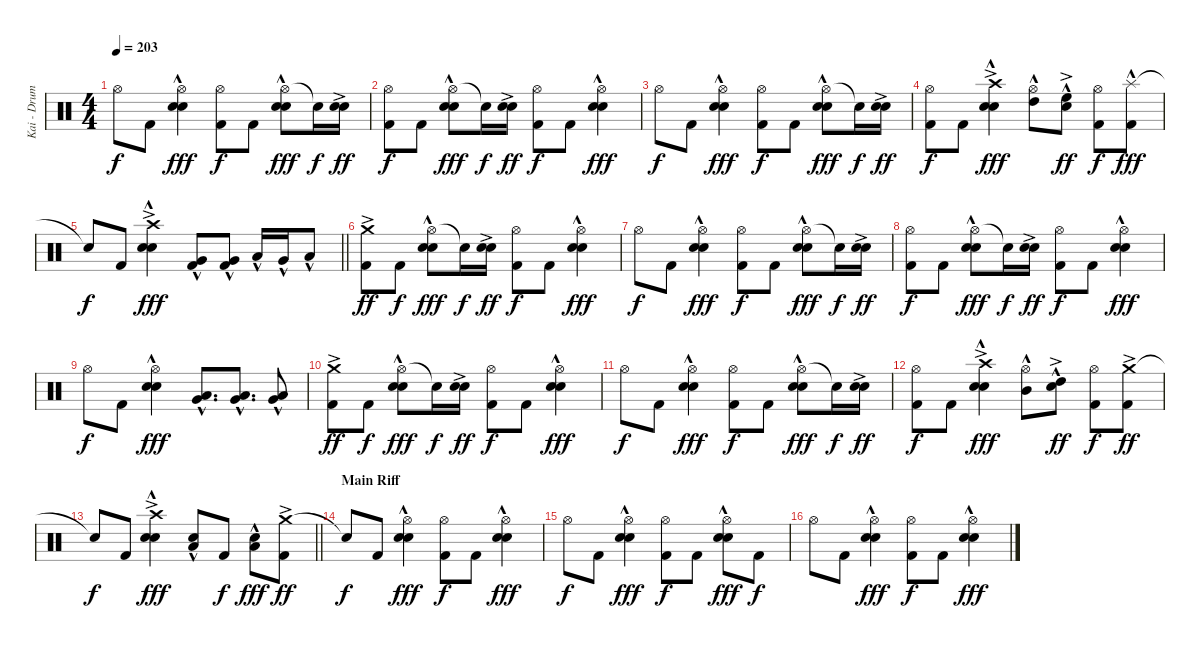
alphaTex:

\track ("Kai - Drums" "Kai - Drum") {instrument percussion}
\staff {score}
\articulation defaults
\ts (4 4)
\tempo 203
\clef neutral
\ks c "Hi-Hat (open)".8{dy f} "Kick (hit) 2".8
("Hi-Hat (open)" "Electric Snare (hit)"{hac} "Snare (hit) 2"{hac}).4{dy fff} ("Hi-Hat (open)" "Kick (hit) 2").8{dy f} "Kick (hit) 2".8 ("Hi-Hat (open)" "Electric Snare (hit)"{hac} "Snare (hit) 2"{hac}).8{dy fff} "Snare (hit)"{t}.16{dy f} ("Electric Snare (hit)"{ac} "Snare (hit) 2"{ac}).16{dy ff} |
("Hi-Hat (open)" "Kick (hit) 2").8{dy f} "Kick (hit) 2".8 ("Hi-Hat (open)" "Electric Snare (hit)"{hac} "Snare (hit) 2"{hac}).8{dy fff} "Snare (hit)"{t}.16{dy f} ("Electric Snare (hit)"{ac} "Snare (hit) 2"{ac}).16{dy ff} ("Hi-Hat (open)" "Kick (hit) 2").8{dy f} "Kick (hit) 2".8 ("Hi-Hat (open)" "Electric Snare (hit)"{hac} "Snare (hit) 2"{hac}).4{dy fff} |
"Hi-Hat (open)".8{dy f} "Kick (hit) 2".8 ("Hi-Hat (open)" "Electric Snare (hit)"{hac} "Snare (hit) 2"{hac}).4{dy fff} ("Hi-Hat (open)" "Kick (hit) 2").8{dy f} "Kick (hit) 2".8 ("Hi-Hat (open)" "Electric Snare (hit)"{hac} "Snare (hit) 2"{hac}).8{dy fff} "Snare (hit)"{t}.16{dy f} ("Electric Snare (hit)"{ac} "Snare (hit) 2"{ac}).16{dy ff} |
("Hi-Hat (open)" "Kick (hit) 2").8{dy f} "Kick (hit) 2".8 ("Crash high (hit)"{ac} "Electric Snare (hit)"{hac} "Snare (hit) 2"{hac}).4{dy fff} ("Hi-Hat (open)" "High Tom (hit)"{hac}).8 ("Electric Snare (hit)"{hac} "High Floor Tom (hit)"{ac}).8{dy ff} ("Hi-Hat (open)" "Kick (hit) 2").8{dy f} ("Splash (hit)"{hac} "Kick (hit) 2").8{dy fff} |
\barLineRight lightlight "Snare (hit)"{t}.8{dy f} "Kick (hit) 2".8
("Crash high (hit)"{ac} "Electric Snare (hit)"{hac} "Snare (hit) 2"{hac}).4{dy fff} ("Very Low Tom (hit)"{hac} "Kick (hit) 2").8 ("Very Low Tom (hit)"{hac} "Kick (hit) 2").8 "Low Tom (hit)"{hac}.16 "Very Low Tom (hit)"{hac}.16 "Low Floor Tom (hit)"{hac}.8 |
\section ("" "")
("Crash medium (hit)"{ac} "Kick (hit) 2").8{dy ff} "Kick (hit) 2".8{dy f} ("Hi-Hat (open)" "Electric Snare (hit)"{hac} "Snare (hit) 2"{hac}).8{dy fff} "Snare (hit)"{t}.16{dy f} ("Electric Snare (hit)"{ac} "Snare (hit) 2"{ac}).16{dy ff} ("Hi-Hat (open)" "Kick (hit) 2").8{dy f} "Kick (hit) 2".8 ("Hi-Hat (open)" "Electric Snare (hit)"{hac} "Snare (hit) 2"{hac}).4{dy fff} |
"Hi-Hat (open)".8{dy f} "Kick (hit) 2".8 ("Hi-Hat (open)" "Electric Snare (hit)"{hac} "Snare (hit) 2"{hac}).4{dy fff} ("Hi-Hat (open)" "Kick (hit) 2").8{dy f} "Kick (hit) 2".8 ("Hi-Hat (open)" "Electric Snare (hit)"{hac} "Snare (hit) 2"{hac}).8{dy fff} "Snare (hit)"{t}.16{dy f} ("Electric Snare (hit)"{ac} "Snare (hit) 2"{ac}).16{dy ff} |
("Hi-Hat (open)" "Kick (hit) 2").8{dy f} "Kick (hit) 2".8 ("Hi-Hat (open)" "Electric Snare (hit)"{hac} "Snare (hit) 2"{hac}).8{dy fff} "Snare (hit)"{t}.16{dy f} ("Electric Snare (hit)"{ac} "Snare (hit) 2"{ac}).16{dy ff} ("Hi-Hat (open)" "Kick (hit) 2").8{dy f} "Kick (hit) 2".8 ("Hi-Hat (open)" "Electric Snare (hit)"{hac} "Snare (hit) 2"{hac}).4{dy fff} |
"Hi-Hat (open)".8{dy f} "Kick (hit) 2".8 ("Hi-Hat (open)" "Electric Snare (hit)"{hac} "Snare (hit) 2"{hac}).4{dy fff} ("Low Tom (hit)"{hac} "Very Low Tom (hit)"{hac}).8{d} ("Low Tom (hit)"{hac} "Very Low Tom (hit)"{hac}).8{d} ("Low Tom (hit)"{hac} "Very Low Tom (hit)"{hac}).8 |
("Crash medium (hit)"{ac} "Kick (hit) 2").8{dy ff} "Kick (hit) 2".8{dy f} ("Hi-Hat (open)" "Electric Snare (hit)"{hac} "Snare (hit) 2"{hac}).8{dy fff} "Snare (hit)"{t}.16{dy f} ("Electric Snare (hit)"{ac} "Snare (hit) 2"{ac}).16{dy ff} ("Hi-Hat (open)" "Kick (hit) 2").8{dy f} "Kick (hit) 2".8 ("Hi-Hat (open)" "Electric Snare (hit)"{hac} "Snare (hit) 2"{hac}).4{dy fff} |
"Hi-Hat (open)".8{dy f} "Kick (hit) 2".8 ("Hi-Hat (open)" "Electric Snare (hit)"{hac} "Snare (hit) 2"{hac}).4{dy fff} ("Hi-Hat (open)" "Kick (hit) 2").8{dy f} "Kick (hit) 2".8 ("Hi-Hat (open)" "Electric Snare (hit)"{hac} "Snare (hit) 2"{hac}).8{dy fff} "Snare (hit)"{t}.16{dy f} ("Electric Snare (hit)"{ac} "Snare (hit) 2"{ac}).16{dy ff} |
("Hi-Hat (open)" "Kick (hit) 2").8{dy f} "Kick (hit) 2".8 ("Crash high (hit)"{ac} "Electric Snare (hit)"{hac} "Snare (hit) 2"{hac}).4{dy fff} ("Hi-Hat (open)" "Mid Tom (hit)"{hac}).8 ("Electric Snare (hit)"{hac} "High Tom (hit)"{ac}).8{dy ff} ("Hi-Hat (open)" "Kick (hit) 2").8{dy f} ("Crash medium (hit)"{ac} "Kick (hit) 2").8{dy ff} |
\barLineRight lightlight "Snare (hit)"{t}.8{dy f} "Kick (hit) 2".8
("Crash high (hit)"{ac} "Electric Snare (hit)"{hac} "Snare (hit) 2"{hac}).4{dy fff} ("Electric Snare (hit)"{hac} "Low Tom (hit)"{hac}).8 "Kick (hit) 2".8{dy f} ("Electric Snare (hit)"{hac} "Low Tom (hit)"{hac}).8{dy fff} ("Crash medium (hit)"{ac} "Kick (hit) 2").8{dy ff} |
\section ("" "Main Riff")
"Snare (hit)"{t}.8{dy f} "Kick (hit) 2".8 ("Hi-Hat (open)" "Electric Snare (hit)"{hac} "Snare (hit) 2"{hac}).4{dy fff} ("Hi-Hat (open)" "Kick (hit) 2").8{dy f} "Kick (hit) 2".8 ("Hi-Hat (open)" "Electric Snare (hit)"{hac} "Snare (hit) 2"{hac}).4{dy fff} |
"Hi-Hat (open)".8{dy f} "Kick (hit) 2".8 ("Hi-Hat (open)" "Electric Snare (hit)"{hac} "Snare (hit) 2"{hac}).4{dy fff} ("Hi-Hat (open)" "Kick (hit) 2").8{dy f} "Kick (hit) 2".8 ("Hi-Hat (open)" "Electric Snare (hit)"{hac} "Snare (hit) 2"{hac}).8{dy fff} "Kick (hit) 2".8{dy f} |
"Hi-Hat (open)".8 "Kick (hit) 2".8 ("Hi-Hat (open)" "Electric Snare (hit)"{hac} "Snare (hit) 2"{hac}).4{dy fff} ("Hi-Hat (open)" "Kick (hit) 2").8{dy f} "Kick (hit) 2".8 ("Hi-Hat (open)" "Electric Snare (hit)"{hac} "Snare (hit) 2"{hac}).4{dy fff}
